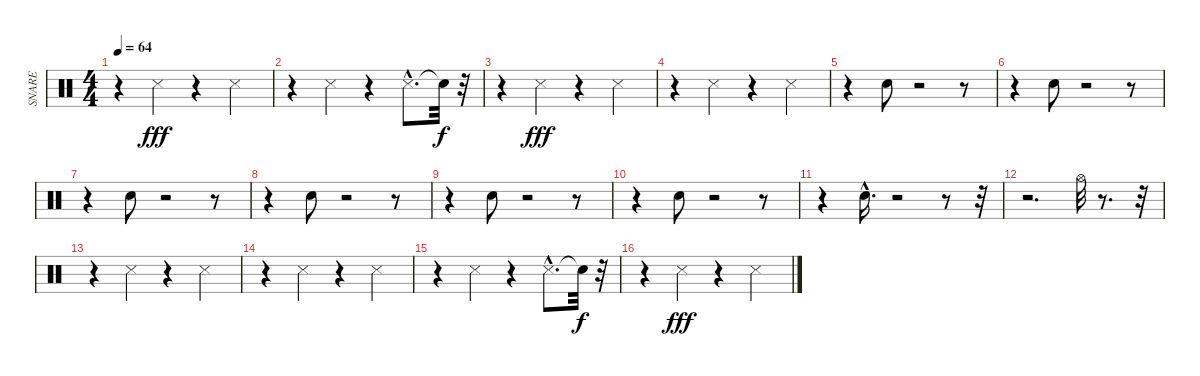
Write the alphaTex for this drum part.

\track ("SNARE" "SNARE") {instrument percussion}
\staff {score}
\articulation defaults
\ts (4 4)
\tempo 64
\clef neutral
\ks c
r.4{dy fff} "Snare (side stick) 3".4 r.4 "Snare (side stick) 3".4 |
r.4 "Snare (side stick) 3".4 r.4 "Snare (side stick) 3"{hac}.8{d} "Snare (hit)"{t}.32{dy f} r.32 |
r.4 "Snare (side stick) 3".4{dy fff} r.4 "Snare (side stick) 3".4 |
r.4 "Snare (side stick) 3".4 r.4 "Snare (side stick) 3".4 |
r.4 "Snare (hit) 2".8 r.2 r.8 |
r.4 "Snare (hit) 2".8 r.2 r.8 |
r.4 "Snare (hit) 2".8 r.2 r.8 |
r.4 "Snare (hit) 2".8 r.2 r.8 |
r.4 "Snare (hit) 2".8 r.2 r.8 |
r.4 "Snare (hit) 2".8 r.2 r.8 |
r.4 "Snare (hit) 2"{hac}.16{d} r.2 r.8 r.32 |
r.2{d} "Hi-Hat (open)".32 r.8{d} r.32 |
r.4 "Snare (side stick) 3".4 r.4 "Snare (side stick) 3".4 |
r.4 "Snare (side stick) 3".4 r.4 "Snare (side stick) 3".4 |
r.4 "Snare (side stick) 3".4 r.4 "Snare (side stick) 3"{hac}.8{d} "Snare (hit)"{t}.32{dy f} r.32 |
r.4 "Snare (side stick) 3".4{dy fff} r.4 "Snare (side stick) 3".4
